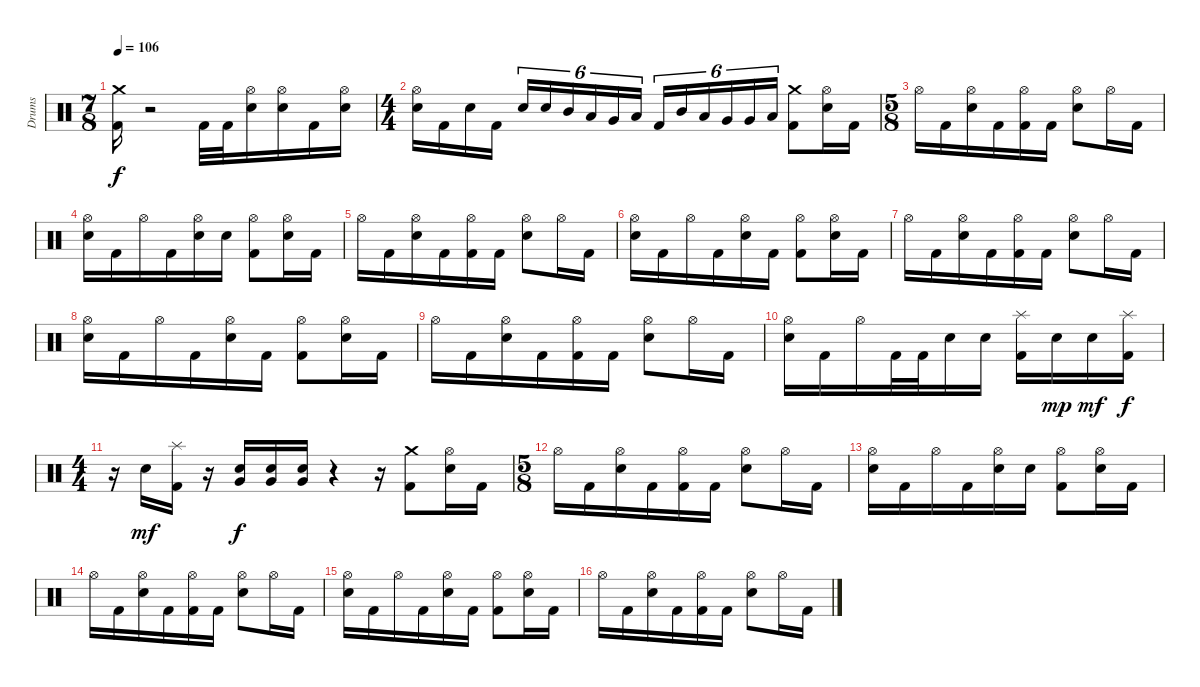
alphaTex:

\track ("Drums" "Drums") {instrument percussion}
\staff {score}
\articulation defaults
\ts (7 8)
\tempo 106
\clef neutral
\ks c
("Crash medium (hit)" "Kick (hit) 2").16{dy f} r.2 "Kick (hit) 2".32 "Kick (hit) 2".32 ("Hi-Hat (open)" "Electric Snare (hit)").16 ("Hi-Hat (open)" "Electric Snare (hit)").16 "Kick (hit) 2".16 ("Hi-Hat (open)" "Electric Snare (hit)").16 |
\ts (4 4)
("Electric Snare (hit)" "Hi-Hat (open)").16 "Kick (hit) 2".16 "Electric Snare (hit)".16 "Kick (hit) 2".16 "Electric Snare (hit)".16{tu (6 4)} "Electric Snare (hit)".16{tu (6 4)} "Mid Tom (hit)".16{tu (6 4)} "Low Tom (hit)".16{tu (6 4)} "Very Low Tom (hit)".16{tu (6 4)} "Low Floor Tom (hit)".16{tu (6 4)} "Kick (hit) 2".16{tu (6 4)} "Mid Tom (hit)".16{tu (6 4)} "Low Tom (hit)".16{tu (6 4)} "Very Low Tom (hit)".16{tu (6 4)} "Very Low Tom (hit)".16{tu (6 4)} "Low Floor Tom (hit)".16{tu (6 4)} ("Kick (hit) 2" "Crash medium (hit)").8 ("Electric Snare (hit)" "Hi-Hat (open)").16 "Kick (hit) 2".16 |
\ts (5 8)
"Hi-Hat (open)".16 "Kick (hit) 2".16 ("Electric Snare (hit)" "Hi-Hat (open)").16 "Kick (hit) 2".16 ("Kick (hit) 2" "Hi-Hat (open)").16 "Kick (hit) 2".16 ("Electric Snare (hit)" "Hi-Hat (open)").8 "Hi-Hat (open)".16 "Kick (hit) 2".16 |
("Electric Snare (hit)" "Hi-Hat (open)").16 "Kick (hit) 2".16 "Hi-Hat (open)".16 "Kick (hit) 2".16 ("Electric Snare (hit)" "Hi-Hat (open)").16 "Electric Snare (hit)".16 ("Kick (hit) 2" "Hi-Hat (open)").8 ("Electric Snare (hit)" "Hi-Hat (open)").16 "Kick (hit) 2".16 |
"Hi-Hat (open)".16 "Kick (hit) 2".16 ("Electric Snare (hit)" "Hi-Hat (open)").16 "Kick (hit) 2".16 ("Kick (hit) 2" "Hi-Hat (open)").16 "Kick (hit) 2".16 ("Electric Snare (hit)" "Hi-Hat (open)").8 "Hi-Hat (open)".16 "Kick (hit) 2".16 |
("Electric Snare (hit)" "Hi-Hat (open)").16 "Kick (hit) 2".16 "Hi-Hat (open)".16 "Kick (hit) 2".16 ("Electric Snare (hit)" "Hi-Hat (open)").16 "Kick (hit) 2".16 ("Kick (hit) 2" "Hi-Hat (open)").8 ("Electric Snare (hit)" "Hi-Hat (open)").16 "Kick (hit) 2".16 |
"Hi-Hat (open)".16 "Kick (hit) 2".16 ("Electric Snare (hit)" "Hi-Hat (open)").16 "Kick (hit) 2".16 ("Kick (hit) 2" "Hi-Hat (open)").16 "Kick (hit) 2".16 ("Electric Snare (hit)" "Hi-Hat (open)").8 "Hi-Hat (open)".16 "Kick (hit) 2".16 |
("Electric Snare (hit)" "Hi-Hat (open)").16 "Kick (hit) 2".16 "Hi-Hat (open)".16 "Kick (hit) 2".16 ("Electric Snare (hit)" "Hi-Hat (open)").16 "Kick (hit) 2".16 ("Kick (hit) 2" "Hi-Hat (open)").8 ("Electric Snare (hit)" "Hi-Hat (open)").16 "Kick (hit) 2".16 |
"Hi-Hat (open)".16 "Kick (hit) 2".16 ("Electric Snare (hit)" "Hi-Hat (open)").16 "Kick (hit) 2".16 ("Kick (hit) 2" "Hi-Hat (open)").16 "Kick (hit) 2".16 ("Electric Snare (hit)" "Hi-Hat (open)").8 "Hi-Hat (open)".16 "Kick (hit) 2".16 |
("Electric Snare (hit)" "Hi-Hat (open)").16 "Kick (hit) 2".16 "Hi-Hat (open)".16 "Kick (hit) 2".32 "Kick (hit) 2".32 "Electric Snare (hit)".16 "Electric Snare (hit)".16 ("Splash (hit)" "Kick (hit) 2").16 "Electric Snare (hit)".16{dy mp} "Electric Snare (hit)".16{dy mf} ("Splash (hit)" "Kick (hit) 2").16{dy f} |
\ts (4 4)
r.16 "Electric Snare (hit)".16{dy mf} ("Splash (hit)" "Kick (hit) 2").16 r.16 ("Very Low Tom (hit)" "Electric Snare (hit)").16{dy f} ("Very Low Tom (hit)" "Electric Snare (hit)").16 ("Very Low Tom (hit)" "Electric Snare (hit)").16 r.4 r.16 ("Kick (hit) 2" "Crash medium (hit)").8 ("Electric Snare (hit)" "Hi-Hat (open)").16 "Kick (hit) 2".16 |
\ts (5 8)
"Hi-Hat (open)".16 "Kick (hit) 2".16 ("Electric Snare (hit)" "Hi-Hat (open)").16 "Kick (hit) 2".16 ("Kick (hit) 2" "Hi-Hat (open)").16 "Kick (hit) 2".16 ("Electric Snare (hit)" "Hi-Hat (open)").8 "Hi-Hat (open)".16 "Kick (hit) 2".16 |
("Electric Snare (hit)" "Hi-Hat (open)").16 "Kick (hit) 2".16 "Hi-Hat (open)".16 "Kick (hit) 2".16 ("Electric Snare (hit)" "Hi-Hat (open)").16 "Electric Snare (hit)".16 ("Kick (hit) 2" "Hi-Hat (open)").8 ("Electric Snare (hit)" "Hi-Hat (open)").16 "Kick (hit) 2".16 |
"Hi-Hat (open)".16 "Kick (hit) 2".16 ("Electric Snare (hit)" "Hi-Hat (open)").16 "Kick (hit) 2".16 ("Kick (hit) 2" "Hi-Hat (open)").16 "Kick (hit) 2".16 ("Electric Snare (hit)" "Hi-Hat (open)").8 "Hi-Hat (open)".16 "Kick (hit) 2".16 |
("Electric Snare (hit)" "Hi-Hat (open)").16 "Kick (hit) 2".16 "Hi-Hat (open)".16 "Kick (hit) 2".16 ("Electric Snare (hit)" "Hi-Hat (open)").16 "Kick (hit) 2".16 ("Kick (hit) 2" "Hi-Hat (open)").8 ("Electric Snare (hit)" "Hi-Hat (open)").16 "Kick (hit) 2".16 |
"Hi-Hat (open)".16 "Kick (hit) 2".16 ("Electric Snare (hit)" "Hi-Hat (open)").16 "Kick (hit) 2".16 ("Kick (hit) 2" "Hi-Hat (open)").16 "Kick (hit) 2".16 ("Electric Snare (hit)" "Hi-Hat (open)").8 "Hi-Hat (open)".16 "Kick (hit) 2".16
